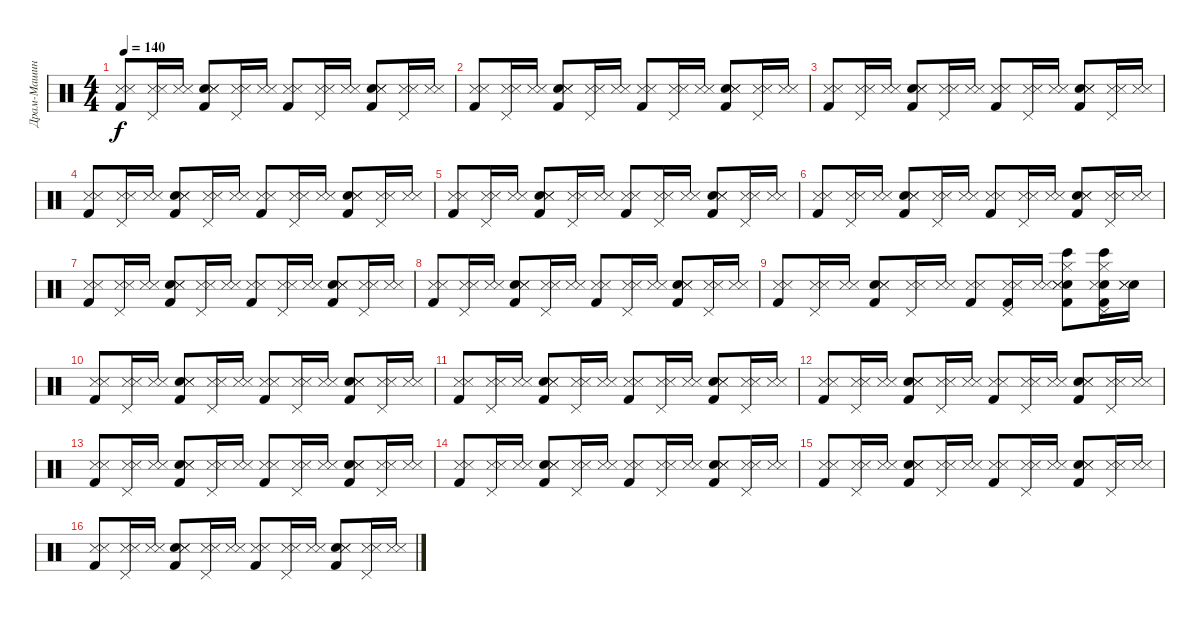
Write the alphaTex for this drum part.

\track ("Драм-Машина" "Драм-Машин") {instrument percussion}
\staff {score}
\articulation defaults
\ts (4 4)
\tempo 140
\clef neutral
\ks c
("Kick (hit) 2" "Snare (side stick) 3" "Metronome (hit)").8{dy f} ("Pedal Hi-Hat (hit)" "Snare (side stick) 3" "Metronome (hit)").16 ("Snare (side stick) 3" "Metronome (hit)").16 ("Snare (hit) 2" "Kick (hit) 2" "Snare (side stick) 3" "Metronome (hit)").8 ("Snare (side stick) 3" "Pedal Hi-Hat (hit)" "Metronome (hit)").16 ("Snare (side stick) 3" "Metronome (hit)").16 ("Kick (hit) 2" "Snare (side stick) 3" "Metronome (hit)").8 ("Pedal Hi-Hat (hit)" "Snare (side stick) 3" "Metronome (hit)").16 ("Snare (side stick) 3" "Metronome (hit)").16 ("Snare (hit) 2" "Kick (hit) 2" "Snare (side stick) 3" "Metronome (hit)").8 ("Snare (side stick) 3" "Pedal Hi-Hat (hit)" "Metronome (hit)").16 ("Snare (side stick) 3" "Metronome (hit)").16 |
("Snare (side stick) 3" "Kick (hit) 2" "Metronome (hit)").8 ("Snare (side stick) 3" "Pedal Hi-Hat (hit)" "Metronome (hit)").16 ("Snare (side stick) 3" "Metronome (hit)").16 ("Snare (hit) 2" "Kick (hit) 2" "Snare (side stick) 3" "Metronome (hit)").8 ("Pedal Hi-Hat (hit)" "Snare (side stick) 3" "Metronome (hit)").16 ("Snare (side stick) 3" "Metronome (hit)").16 ("Kick (hit) 2" "Snare (side stick) 3" "Metronome (hit)").8 ("Snare (side stick) 3" "Pedal Hi-Hat (hit)" "Metronome (hit)").16 ("Snare (side stick) 3" "Metronome (hit)").16 ("Snare (hit) 2" "Kick (hit) 2" "Snare (side stick) 3" "Metronome (hit)").8 ("Pedal Hi-Hat (hit)" "Snare (side stick) 3" "Metronome (hit)").16 ("Snare (side stick) 3" "Metronome (hit)").16 |
("Kick (hit) 2" "Snare (side stick) 3" "Metronome (hit)").8 ("Snare (side stick) 3" "Pedal Hi-Hat (hit)" "Metronome (hit)").16 ("Snare (side stick) 3" "Metronome (hit)").16 ("Snare (hit) 2" "Kick (hit) 2" "Snare (side stick) 3" "Metronome (hit)").8 ("Pedal Hi-Hat (hit)" "Snare (side stick) 3" "Metronome (hit)").16 ("Snare (side stick) 3" "Metronome (hit)").16 ("Kick (hit) 2" "Snare (side stick) 3" "Metronome (hit)").8 ("Snare (side stick) 3" "Pedal Hi-Hat (hit)" "Metronome (hit)").16 ("Snare (side stick) 3" "Metronome (hit)").16 ("Snare (hit) 2" "Kick (hit) 2" "Snare (side stick) 3" "Metronome (hit)").8 ("Pedal Hi-Hat (hit)" "Snare (side stick) 3" "Metronome (hit)").16 ("Snare (side stick) 3" "Metronome (hit)").16 |
("Kick (hit) 2" "Snare (side stick) 3" "Metronome (hit)").8 ("Snare (side stick) 3" "Pedal Hi-Hat (hit)" "Metronome (hit)").16 ("Snare (side stick) 3" "Metronome (hit)").16 ("Snare (hit) 2" "Kick (hit) 2" "Snare (side stick) 3" "Metronome (hit)").8 ("Pedal Hi-Hat (hit)" "Snare (side stick) 3" "Metronome (hit)").16 ("Snare (side stick) 3" "Metronome (hit)").16 ("Kick (hit) 2" "Snare (side stick) 3" "Metronome (hit)").8 ("Snare (side stick) 3" "Pedal Hi-Hat (hit)" "Metronome (hit)").16 ("Snare (side stick) 3" "Metronome (hit)").16 ("Snare (hit) 2" "Kick (hit) 2" "Snare (side stick) 3" "Metronome (hit)").8 ("Pedal Hi-Hat (hit)" "Snare (side stick) 3" "Metronome (hit)").16 ("Snare (side stick) 3" "Metronome (hit)").16 |
("Kick (hit) 2" "Snare (side stick) 3" "Metronome (hit)").8 ("Snare (side stick) 3" "Pedal Hi-Hat (hit)" "Metronome (hit)").16 ("Snare (side stick) 3" "Metronome (hit)").16 ("Snare (hit) 2" "Kick (hit) 2" "Snare (side stick) 3" "Metronome (hit)").8 ("Pedal Hi-Hat (hit)" "Snare (side stick) 3" "Metronome (hit)").16 ("Snare (side stick) 3" "Metronome (hit)").16 ("Kick (hit) 2" "Snare (side stick) 3" "Metronome (hit)").8 ("Snare (side stick) 3" "Pedal Hi-Hat (hit)" "Metronome (hit)").16 ("Snare (side stick) 3" "Metronome (hit)").16 ("Snare (hit) 2" "Kick (hit) 2" "Snare (side stick) 3" "Metronome (hit)").8 ("Pedal Hi-Hat (hit)" "Snare (side stick) 3" "Metronome (hit)").16 ("Snare (side stick) 3" "Metronome (hit)").16 |
("Kick (hit) 2" "Snare (side stick) 3" "Metronome (hit)").8 ("Snare (side stick) 3" "Pedal Hi-Hat (hit)" "Metronome (hit)").16 ("Snare (side stick) 3" "Metronome (hit)").16 ("Snare (hit) 2" "Kick (hit) 2" "Snare (side stick) 3" "Metronome (hit)").8 ("Pedal Hi-Hat (hit)" "Snare (side stick) 3" "Metronome (hit)").16 ("Snare (side stick) 3" "Metronome (hit)").16 ("Kick (hit) 2" "Snare (side stick) 3" "Metronome (hit)").8 ("Snare (side stick) 3" "Pedal Hi-Hat (hit)" "Metronome (hit)").16 ("Snare (side stick) 3" "Metronome (hit)").16 ("Snare (hit) 2" "Kick (hit) 2" "Snare (side stick) 3" "Metronome (hit)").8 ("Pedal Hi-Hat (hit)" "Snare (side stick) 3" "Metronome (hit)").16 ("Snare (side stick) 3" "Metronome (hit)").16 |
("Kick (hit) 2" "Snare (side stick) 3" "Metronome (hit)").8 ("Snare (side stick) 3" "Pedal Hi-Hat (hit)" "Metronome (hit)").16 ("Snare (side stick) 3" "Metronome (hit)").16 ("Snare (hit) 2" "Kick (hit) 2" "Snare (side stick) 3" "Metronome (hit)").8 ("Pedal Hi-Hat (hit)" "Snare (side stick) 3" "Metronome (hit)").16 ("Snare (side stick) 3" "Metronome (hit)").16 ("Kick (hit) 2" "Snare (side stick) 3" "Metronome (hit)").8 ("Snare (side stick) 3" "Pedal Hi-Hat (hit)" "Metronome (hit)").16 ("Snare (side stick) 3" "Metronome (hit)").16 ("Snare (hit) 2" "Kick (hit) 2" "Snare (side stick) 3" "Metronome (hit)").8 ("Pedal Hi-Hat (hit)" "Snare (side stick) 3" "Metronome (hit)").16 ("Snare (side stick) 3" "Metronome (hit)").16 |
("Kick (hit) 2" "Snare (side stick) 3" "Metronome (hit)").8 ("Snare (side stick) 3" "Pedal Hi-Hat (hit)" "Metronome (hit)").16 ("Snare (side stick) 3" "Metronome (hit)").16 ("Snare (hit) 2" "Kick (hit) 2" "Snare (side stick) 3" "Metronome (hit)").8 ("Pedal Hi-Hat (hit)" "Snare (side stick) 3" "Metronome (hit)").16 ("Snare (side stick) 3" "Metronome (hit)").16 ("Kick (hit) 2" "Snare (side stick) 3" "Metronome (hit)").8 ("Snare (side stick) 3" "Pedal Hi-Hat (hit)" "Metronome (hit)").16 ("Snare (side stick) 3" "Metronome (hit)").16 ("Snare (hit) 2" "Kick (hit) 2" "Snare (side stick) 3" "Metronome (hit)").8 ("Pedal Hi-Hat (hit)" "Snare (side stick) 3" "Metronome (hit)").16 ("Snare (side stick) 3" "Metronome (hit)").16 |
("Kick (hit) 2" "Snare (side stick) 3" "Metronome (hit)").8 ("Snare (side stick) 3" "Pedal Hi-Hat (hit)" "Metronome (hit)").16 ("Snare (side stick) 3" "Metronome (hit)").16 ("Snare (hit) 2" "Kick (hit) 2" "Snare (side stick) 3" "Metronome (hit)").8 ("Pedal Hi-Hat (hit)" "Snare (side stick) 3" "Metronome (hit)").16 ("Snare (side stick) 3" "Metronome (hit)").16 ("Kick (hit) 2" "Snare (side stick) 3" "Metronome (hit)").8 ("Pedal Hi-Hat (hit)" "Kick (hit) 2" "Snare (side stick) 3" "Metronome (hit)").16 ("Snare (side stick) 3" "Metronome (hit)").16 ("Snare (hit) 2" "Bongo High (hit)" "Hi-Hat (closed)" "Snare (side stick) 3" "Kick (hit) 2" "Metronome (hit)").8 ("Snare (hit) 2" "Hi-Hat (closed)" "Bongo High (hit)" "Snare (side stick) 3" "Pedal Hi-Hat (hit)" "Kick (hit) 2").16 ("Snare (hit) 2" "Snare (side stick) 3" "Metronome (hit)").16 |
("Kick (hit) 2" "Snare (side stick) 3" "Metronome (hit)").8 ("Pedal Hi-Hat (hit)" "Snare (side stick) 3" "Metronome (hit)").16 ("Snare (side stick) 3" "Metronome (hit)").16 ("Snare (hit) 2" "Snare (side stick) 3" "Kick (hit) 2" "Metronome (hit)").8 ("Pedal Hi-Hat (hit)" "Snare (side stick) 3" "Metronome (hit)").16 ("Snare (side stick) 3" "Metronome (hit)").16 ("Kick (hit) 2" "Snare (side stick) 3" "Metronome (hit)").8 ("Pedal Hi-Hat (hit)" "Snare (side stick) 3" "Metronome (hit)").16 ("Snare (side stick) 3" "Metronome (hit)").16 ("Snare (hit) 2" "Kick (hit) 2" "Snare (side stick) 3" "Metronome (hit)").8 ("Pedal Hi-Hat (hit)" "Snare (side stick) 3" "Metronome (hit)").16 ("Snare (side stick) 3" "Metronome (hit)").16 |
("Snare (side stick) 3" "Kick (hit) 2" "Metronome (hit)").8 ("Pedal Hi-Hat (hit)" "Snare (side stick) 3" "Metronome (hit)").16 ("Snare (side stick) 3" "Metronome (hit)").16 ("Snare (hit) 2" "Kick (hit) 2" "Snare (side stick) 3" "Metronome (hit)").8 ("Pedal Hi-Hat (hit)" "Snare (side stick) 3" "Metronome (hit)").16 ("Snare (side stick) 3" "Metronome (hit)").16 ("Kick (hit) 2" "Snare (side stick) 3" "Metronome (hit)").8 ("Snare (side stick) 3" "Pedal Hi-Hat (hit)" "Metronome (hit)").16 ("Snare (side stick) 3" "Metronome (hit)").16 ("Snare (hit) 2" "Kick (hit) 2" "Snare (side stick) 3" "Metronome (hit)").8 ("Snare (side stick) 3" "Pedal Hi-Hat (hit)" "Metronome (hit)").16 ("Snare (side stick) 3" "Metronome (hit)").16 |
("Kick (hit) 2" "Snare (side stick) 3" "Metronome (hit)").8 ("Pedal Hi-Hat (hit)" "Snare (side stick) 3" "Metronome (hit)").16 ("Snare (side stick) 3" "Metronome (hit)").16 ("Snare (hit) 2" "Kick (hit) 2" "Snare (side stick) 3" "Metronome (hit)").8 ("Snare (side stick) 3" "Pedal Hi-Hat (hit)" "Metronome (hit)").16 ("Snare (side stick) 3" "Metronome (hit)").16 ("Snare (side stick) 3" "Kick (hit) 2" "Metronome (hit)").8 ("Pedal Hi-Hat (hit)" "Snare (side stick) 3" "Metronome (hit)").16 ("Snare (side stick) 3" "Metronome (hit)").16 ("Snare (hit) 2" "Kick (hit) 2" "Snare (side stick) 3" "Metronome (hit)").8 ("Pedal Hi-Hat (hit)" "Snare (side stick) 3" "Metronome (hit)").16 ("Snare (side stick) 3" "Metronome (hit)").16 |
("Snare (side stick) 3" "Kick (hit) 2" "Metronome (hit)").8 ("Pedal Hi-Hat (hit)" "Snare (side stick) 3" "Metronome (hit)").16 ("Snare (side stick) 3" "Metronome (hit)").16 ("Snare (hit) 2" "Snare (side stick) 3" "Kick (hit) 2" "Metronome (hit)").8 ("Pedal Hi-Hat (hit)" "Snare (side stick) 3" "Metronome (hit)").16 ("Snare (side stick) 3" "Metronome (hit)").16 ("Kick (hit) 2" "Snare (side stick) 3" "Metronome (hit)").8 ("Pedal Hi-Hat (hit)" "Snare (side stick) 3" "Metronome (hit)").16 ("Snare (side stick) 3" "Metronome (hit)").16 ("Snare (hit) 2" "Snare (side stick) 3" "Kick (hit) 2" "Metronome (hit)").8 ("Pedal Hi-Hat (hit)" "Snare (side stick) 3" "Metronome (hit)").16 ("Snare (side stick) 3" "Metronome (hit)").16 |
("Kick (hit) 2" "Snare (side stick) 3" "Metronome (hit)").8 ("Snare (side stick) 3" "Pedal Hi-Hat (hit)" "Metronome (hit)").16 ("Snare (side stick) 3" "Metronome (hit)").16 ("Snare (hit) 2" "Kick (hit) 2" "Snare (side stick) 3" "Metronome (hit)").8 ("Pedal Hi-Hat (hit)" "Snare (side stick) 3" "Metronome (hit)").16 ("Snare (side stick) 3" "Metronome (hit)").16 ("Kick (hit) 2" "Snare (side stick) 3" "Metronome (hit)").8 ("Pedal Hi-Hat (hit)" "Snare (side stick) 3" "Metronome (hit)").16 ("Snare (side stick) 3" "Metronome (hit)").16 ("Snare (hit) 2" "Kick (hit) 2" "Snare (side stick) 3" "Metronome (hit)").8 ("Pedal Hi-Hat (hit)" "Snare (side stick) 3" "Metronome (hit)").16 ("Snare (side stick) 3" "Metronome (hit)").16 |
("Snare (side stick) 3" "Kick (hit) 2" "Metronome (hit)").8 ("Snare (side stick) 3" "Pedal Hi-Hat (hit)" "Metronome (hit)").16 ("Snare (side stick) 3" "Metronome (hit)").16 ("Snare (hit) 2" "Kick (hit) 2" "Snare (side stick) 3" "Metronome (hit)").8 ("Pedal Hi-Hat (hit)" "Snare (side stick) 3" "Metronome (hit)").16 ("Snare (side stick) 3" "Metronome (hit)").16 ("Kick (hit) 2" "Snare (side stick) 3" "Metronome (hit)").8 ("Pedal Hi-Hat (hit)" "Snare (side stick) 3" "Metronome (hit)").16 ("Snare (side stick) 3" "Metronome (hit)").16 ("Snare (hit) 2" "Kick (hit) 2" "Snare (side stick) 3" "Metronome (hit)").8 ("Pedal Hi-Hat (hit)" "Snare (side stick) 3" "Metronome (hit)").16 ("Snare (side stick) 3" "Metronome (hit)").16 |
("Kick (hit) 2" "Snare (side stick) 3" "Metronome (hit)").8 ("Snare (side stick) 3" "Pedal Hi-Hat (hit)" "Metronome (hit)").16 ("Snare (side stick) 3" "Metronome (hit)").16 ("Snare (hit) 2" "Kick (hit) 2" "Snare (side stick) 3" "Metronome (hit)").8 ("Pedal Hi-Hat (hit)" "Snare (side stick) 3" "Metronome (hit)").16 ("Snare (side stick) 3" "Metronome (hit)").16 ("Kick (hit) 2" "Snare (side stick) 3" "Metronome (hit)").8 ("Pedal Hi-Hat (hit)" "Snare (side stick) 3" "Metronome (hit)").16 ("Snare (side stick) 3" "Metronome (hit)").16 ("Snare (hit) 2" "Snare (side stick) 3" "Kick (hit) 2" "Metronome (hit)").8 ("Pedal Hi-Hat (hit)" "Snare (side stick) 3" "Metronome (hit)").16 ("Snare (side stick) 3" "Metronome (hit)").16
